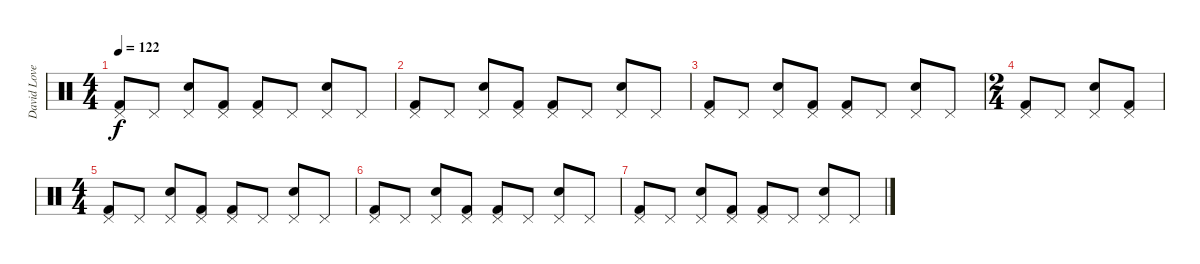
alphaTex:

\track ("David Lovering" "David Love") {instrument percussion}
\staff {score}
\articulation defaults
\ts (4 4)
\tempo 122
\clef neutral
\ks c
("Pedal Hi-Hat (hit)" "Kick (hit) 2").8{dy f} "Pedal Hi-Hat (hit)".8 ("Pedal Hi-Hat (hit)" "Electric Snare (hit)").8 ("Pedal Hi-Hat (hit)" "Kick (hit) 2").8 ("Pedal Hi-Hat (hit)" "Kick (hit) 2").8 "Pedal Hi-Hat (hit)".8 ("Pedal Hi-Hat (hit)" "Electric Snare (hit)").8 "Pedal Hi-Hat (hit)".8 |
("Pedal Hi-Hat (hit)" "Kick (hit) 2").8 "Pedal Hi-Hat (hit)".8 ("Pedal Hi-Hat (hit)" "Electric Snare (hit)").8 ("Pedal Hi-Hat (hit)" "Kick (hit) 2").8 ("Pedal Hi-Hat (hit)" "Kick (hit) 2").8 "Pedal Hi-Hat (hit)".8 ("Pedal Hi-Hat (hit)" "Electric Snare (hit)").8 "Pedal Hi-Hat (hit)".8 |
("Pedal Hi-Hat (hit)" "Kick (hit) 2").8 "Pedal Hi-Hat (hit)".8 ("Pedal Hi-Hat (hit)" "Electric Snare (hit)").8 ("Pedal Hi-Hat (hit)" "Kick (hit) 2").8 ("Pedal Hi-Hat (hit)" "Kick (hit) 2").8 "Pedal Hi-Hat (hit)".8 ("Pedal Hi-Hat (hit)" "Electric Snare (hit)").8 "Pedal Hi-Hat (hit)".8 |
\ts (2 4)
("Pedal Hi-Hat (hit)" "Kick (hit) 2").8 "Pedal Hi-Hat (hit)".8 ("Pedal Hi-Hat (hit)" "Electric Snare (hit)").8 ("Pedal Hi-Hat (hit)" "Kick (hit) 2").8 |
\ts (4 4)
("Pedal Hi-Hat (hit)" "Kick (hit) 2").8 "Pedal Hi-Hat (hit)".8 ("Pedal Hi-Hat (hit)" "Electric Snare (hit)").8 ("Pedal Hi-Hat (hit)" "Kick (hit) 2").8 ("Pedal Hi-Hat (hit)" "Kick (hit) 2").8 "Pedal Hi-Hat (hit)".8 ("Pedal Hi-Hat (hit)" "Electric Snare (hit)").8 "Pedal Hi-Hat (hit)".8 |
("Pedal Hi-Hat (hit)" "Kick (hit) 2").8 "Pedal Hi-Hat (hit)".8 ("Pedal Hi-Hat (hit)" "Electric Snare (hit)").8 ("Pedal Hi-Hat (hit)" "Kick (hit) 2").8 ("Pedal Hi-Hat (hit)" "Kick (hit) 2").8 "Pedal Hi-Hat (hit)".8 ("Pedal Hi-Hat (hit)" "Electric Snare (hit)").8 "Pedal Hi-Hat (hit)".8 |
("Pedal Hi-Hat (hit)" "Kick (hit) 2").8 "Pedal Hi-Hat (hit)".8 ("Pedal Hi-Hat (hit)" "Electric Snare (hit)").8 ("Pedal Hi-Hat (hit)" "Kick (hit) 2").8 ("Pedal Hi-Hat (hit)" "Kick (hit) 2").8 "Pedal Hi-Hat (hit)".8 ("Pedal Hi-Hat (hit)" "Electric Snare (hit)").8 "Pedal Hi-Hat (hit)".8
